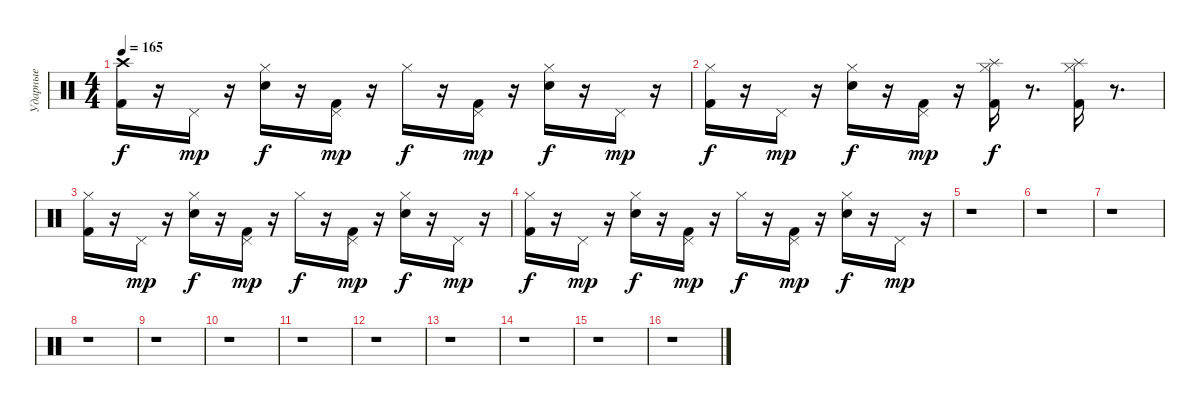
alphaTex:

\track ("Ударные" "Ударные") {instrument percussion}
\staff {score}
\articulation defaults
\ts (4 4)
\tempo 165
\clef neutral
\ks c
("Crash high (hit)" "Kick (hit) 2").16{dy f} r.16 "Pedal Hi-Hat (hit)".16{dy mp} r.16 ("Electric Snare (hit)" "Hi-Hat (closed)").16{dy f} r.16 ("Kick (hit) 2" "Pedal Hi-Hat (hit)").16{dy mp} r.16 "Hi-Hat (closed)".16{dy f} r.16 ("Pedal Hi-Hat (hit)" "Kick (hit) 2").16{dy mp} r.16 ("Hi-Hat (closed)" "Electric Snare (hit)").16{dy f} r.16 "Pedal Hi-Hat (hit)".16{dy mp} r.16 |
("Kick (hit) 2" "Hi-Hat (closed)").16{dy f} r.16 "Pedal Hi-Hat (hit)".16{dy mp} r.16 ("Electric Snare (hit)" "Hi-Hat (closed)").16{dy f} r.16 ("Pedal Hi-Hat (hit)" "Kick (hit) 2").16{dy mp} r.16 ("Hi-Hat (closed)" "Splash (hit)" "Kick (hit) 2").16{dy f} r.8{d} ("Hi-Hat (closed)" "Kick (hit) 2" "Splash (hit)").16 r.8{d} |
("Kick (hit) 2" "Hi-Hat (closed)").16 r.16 "Pedal Hi-Hat (hit)".16{dy mp} r.16 ("Hi-Hat (closed)" "Electric Snare (hit)").16{dy f} r.16 ("Pedal Hi-Hat (hit)" "Kick (hit) 2").16{dy mp} r.16 "Hi-Hat (closed)".16{dy f} r.16 ("Kick (hit) 2" "Pedal Hi-Hat (hit)").16{dy mp} r.16 ("Hi-Hat (closed)" "Electric Snare (hit)").16{dy f} r.16 "Pedal Hi-Hat (hit)".16{dy mp} r.16 |
("Hi-Hat (closed)" "Kick (hit) 2").16{dy f} r.16 "Pedal Hi-Hat (hit)".16{dy mp} r.16 ("Hi-Hat (closed)" "Electric Snare (hit)").16{dy f} r.16 ("Pedal Hi-Hat (hit)" "Kick (hit) 2").16{dy mp} r.16 "Hi-Hat (closed)".16{dy f} r.16 ("Kick (hit) 2" "Pedal Hi-Hat (hit)").16{dy mp} r.16 ("Hi-Hat (closed)" "Electric Snare (hit)").16{dy f} r.16 "Pedal Hi-Hat (hit)".16{dy mp} r.16 |
r.1 |
r.1 |
r.1 |
r.1 |
r.1 |
r.1 |
r.1 |
r.1 |
r.1 |
r.1 |
r.1 |
r.1
